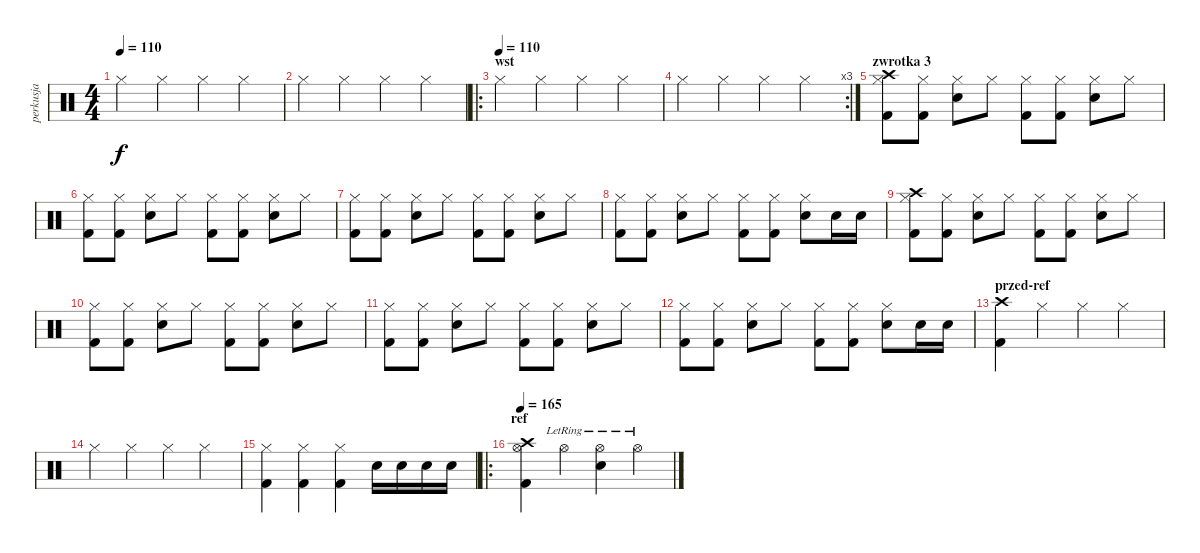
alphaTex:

\track ("perkusja" "perkusja") {instrument percussion}
\staff {score}
\articulation defaults
\ts (4 4)
\tempo 110
\clef neutral
\ks c "Hi-Hat (closed)".4{dy f} "Hi-Hat (closed)".4 "Hi-Hat (closed)".4 "Hi-Hat (closed)".4
|
"Hi-Hat (closed)".4 "Hi-Hat (closed)".4 "Hi-Hat (closed)".4 "Hi-Hat (closed)".4 |
\ro
\section ("" "wst")
\tempo (110)
"Hi-Hat (closed)".4 "Hi-Hat (closed)".4 "Hi-Hat (closed)".4 "Hi-Hat (closed)".4 |
\rc 3 "Hi-Hat (closed)".4 "Hi-Hat (closed)".4 "Hi-Hat (closed)".4 "Hi-Hat (closed)".4
|
\section ("" "zwrotka 3")
("Hi-Hat (closed)" "Kick (hit) 2" "Crash high (hit)").8 ("Hi-Hat (closed)" "Kick (hit) 2").8 ("Hi-Hat (closed)" "Electric Snare (hit)").8 "Hi-Hat (closed)".8 ("Hi-Hat (closed)" "Kick (hit) 2").8 ("Hi-Hat (closed)" "Kick (hit) 2").8 ("Hi-Hat (closed)" "Electric Snare (hit)").8 "Hi-Hat (closed)".8 |
("Hi-Hat (closed)" "Kick (hit) 2").8 ("Hi-Hat (closed)" "Kick (hit) 2").8 ("Hi-Hat (closed)" "Electric Snare (hit)").8 "Hi-Hat (closed)".8 ("Hi-Hat (closed)" "Kick (hit) 2").8 ("Hi-Hat (closed)" "Kick (hit) 2").8 ("Hi-Hat (closed)" "Electric Snare (hit)").8 "Hi-Hat (closed)".8 |
("Hi-Hat (closed)" "Kick (hit) 2").8 ("Hi-Hat (closed)" "Kick (hit) 2").8 ("Hi-Hat (closed)" "Electric Snare (hit)").8 "Hi-Hat (closed)".8 ("Hi-Hat (closed)" "Kick (hit) 2").8 ("Hi-Hat (closed)" "Kick (hit) 2").8 ("Hi-Hat (closed)" "Electric Snare (hit)").8 "Hi-Hat (closed)".8 |
("Hi-Hat (closed)" "Kick (hit) 2").8 ("Hi-Hat (closed)" "Kick (hit) 2").8 ("Hi-Hat (closed)" "Electric Snare (hit)").8 "Hi-Hat (closed)".8 ("Hi-Hat (closed)" "Kick (hit) 2").8 ("Hi-Hat (closed)" "Kick (hit) 2").8 ("Hi-Hat (closed)" "Electric Snare (hit)").8 "Electric Snare (hit)".16 "Electric Snare (hit)".16 |
("Hi-Hat (closed)" "Kick (hit) 2" "Crash high (hit)").8 ("Hi-Hat (closed)" "Kick (hit) 2").8 ("Hi-Hat (closed)" "Electric Snare (hit)").8 "Hi-Hat (closed)".8 ("Hi-Hat (closed)" "Kick (hit) 2").8 ("Hi-Hat (closed)" "Kick (hit) 2").8 ("Hi-Hat (closed)" "Electric Snare (hit)").8 "Hi-Hat (closed)".8 |
("Hi-Hat (closed)" "Kick (hit) 2").8 ("Hi-Hat (closed)" "Kick (hit) 2").8 ("Hi-Hat (closed)" "Electric Snare (hit)").8 "Hi-Hat (closed)".8 ("Hi-Hat (closed)" "Kick (hit) 2").8 ("Hi-Hat (closed)" "Kick (hit) 2").8 ("Hi-Hat (closed)" "Electric Snare (hit)").8 "Hi-Hat (closed)".8 |
("Hi-Hat (closed)" "Kick (hit) 2").8 ("Hi-Hat (closed)" "Kick (hit) 2").8 ("Hi-Hat (closed)" "Electric Snare (hit)").8 "Hi-Hat (closed)".8 ("Hi-Hat (closed)" "Kick (hit) 2").8 ("Hi-Hat (closed)" "Kick (hit) 2").8 ("Hi-Hat (closed)" "Electric Snare (hit)").8 "Hi-Hat (closed)".8 |
("Hi-Hat (closed)" "Kick (hit) 2").8 ("Hi-Hat (closed)" "Kick (hit) 2").8 ("Hi-Hat (closed)" "Electric Snare (hit)").8 "Hi-Hat (closed)".8 ("Hi-Hat (closed)" "Kick (hit) 2").8 ("Hi-Hat (closed)" "Kick (hit) 2").8 ("Hi-Hat (closed)" "Electric Snare (hit)").8 "Electric Snare (hit)".16 "Electric Snare (hit)".16 |
\section ("" "przed-ref")
("Crash high (hit)" "Kick (hit) 2").4 "Hi-Hat (closed)".4 "Hi-Hat (closed)".4 "Hi-Hat (closed)".4 |
"Hi-Hat (closed)".4 "Hi-Hat (closed)".4 "Hi-Hat (closed)".4 "Hi-Hat (closed)".4 |
("Hi-Hat (closed)" "Kick (hit) 2").4 ("Hi-Hat (closed)" "Kick (hit) 2").4 ("Hi-Hat (closed)" "Kick (hit) 2").4 "Electric Snare (hit)".16 "Electric Snare (hit)".16 "Electric Snare (hit)".16 "Electric Snare (hit)".16 |
\ro
\section ("" "ref")
\tempo 165
("Hi-Hat (open)" "Kick (hit) 2" "Crash high (hit)").4 "Hi-Hat (open)"{lr}.4 ("Hi-Hat (open)"{lr} "Electric Snare (hit)").4 "Hi-Hat (open)"{lr}.4
